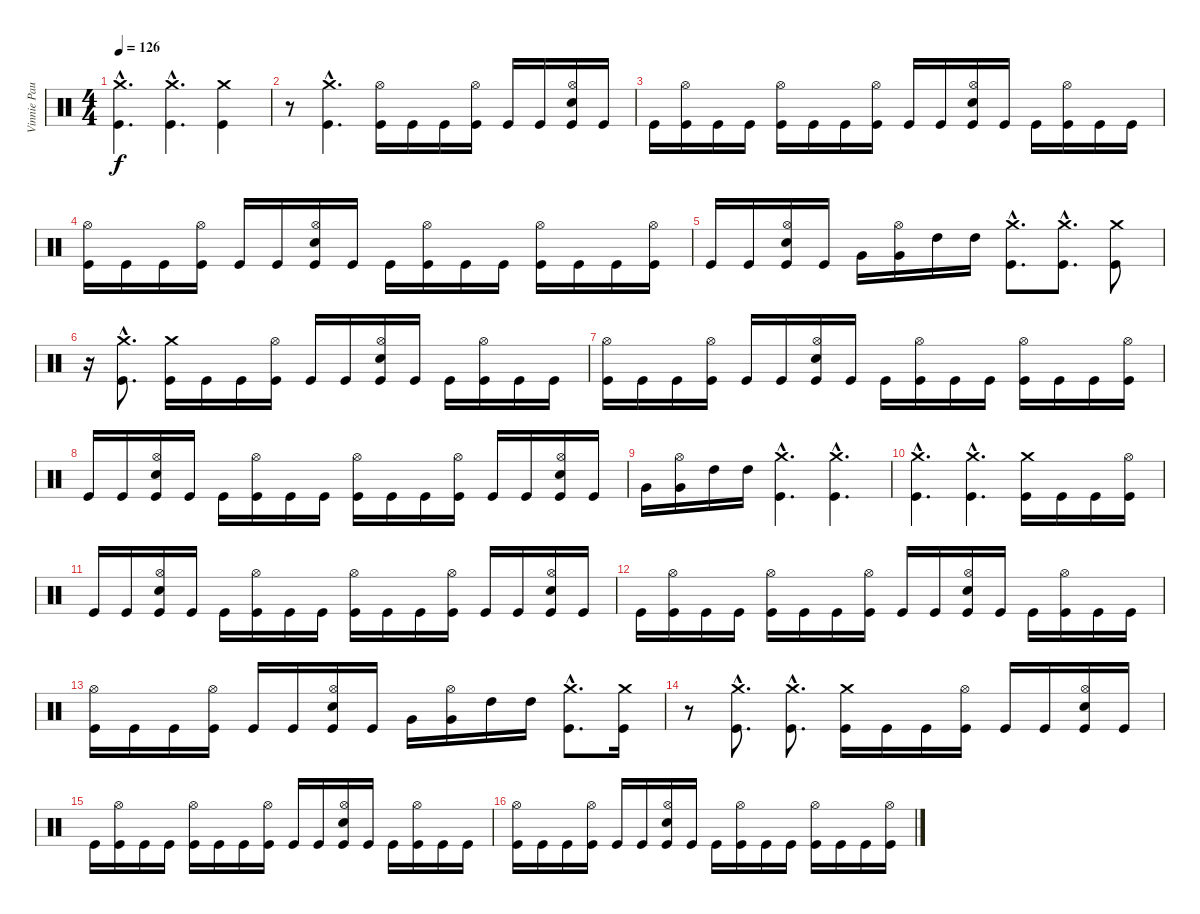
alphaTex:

\track ("Vinnie Paul" "Vinnie Pau") {instrument percussion}
\staff {score}
\articulation defaults
\ts (4 4)
\tempo 126
\clef neutral
\ks c
("Kick (hit)"{hac} "Crash medium (hit)"{hac}).4{d dy f} ("Kick (hit)"{hac} "Crash medium (hit)"{hac}).4{d} ("Kick (hit)" "Crash medium (hit)").4 |
r.8 ("Kick (hit)"{hac} "Crash medium (hit)"{hac}).4{d} ("Kick (hit)" "Hi-Hat (open)").16 "Kick (hit)".16 "Kick (hit)".16 ("Kick (hit)" "Hi-Hat (open)").16 "Kick (hit)".16 "Kick (hit)".16 ("Kick (hit)" "Snare (hit) 2" "Hi-Hat (open)").16 "Kick (hit)".16 |
"Kick (hit)".16 ("Kick (hit)" "Hi-Hat (open)").16 "Kick (hit)".16 "Kick (hit)".16 ("Kick (hit)" "Hi-Hat (open)").16 "Kick (hit)".16 "Kick (hit)".16 ("Kick (hit)" "Hi-Hat (open)").16 "Kick (hit)".16 "Kick (hit)".16 ("Kick (hit)" "Snare (hit) 2" "Hi-Hat (open)").16 "Kick (hit)".16 "Kick (hit)".16 ("Kick (hit)" "Hi-Hat (open)").16 "Kick (hit)".16 "Kick (hit)".16 |
("Kick (hit)" "Hi-Hat (open)").16 "Kick (hit)".16 "Kick (hit)".16 ("Kick (hit)" "Hi-Hat (open)").16 "Kick (hit)".16 "Kick (hit)".16 ("Kick (hit)" "Snare (hit) 2" "Hi-Hat (open)").16 "Kick (hit)".16 "Kick (hit)".16 ("Kick (hit)" "Hi-Hat (open)").16 "Kick (hit)".16 "Kick (hit)".16 ("Kick (hit)" "Hi-Hat (open)").16 "Kick (hit)".16 "Kick (hit)".16 ("Kick (hit)" "Hi-Hat (open)").16 |
"Kick (hit)".16 "Kick (hit)".16 ("Kick (hit)" "Snare (hit) 2" "Hi-Hat (open)").16 "Kick (hit)".16 "Very Low Tom (hit)".16 ("Very Low Tom (hit)" "Hi-Hat (open)").16 "High Tom (hit)".16 "High Tom (hit)".16 ("Kick (hit)"{hac} "Crash medium (hit)"{hac}).8{d} ("Kick (hit)"{hac} "Crash medium (hit)"{hac}).8{d} ("Kick (hit)" "Crash medium (hit)").8 |
r.16 ("Kick (hit)"{hac} "Crash medium (hit)"{hac}).8{d} ("Kick (hit)" "Crash medium (hit)").16 "Kick (hit)".16 "Kick (hit)".16 ("Kick (hit)" "Hi-Hat (open)").16 "Kick (hit)".16 "Kick (hit)".16 ("Kick (hit)" "Snare (hit) 2" "Hi-Hat (open)").16 "Kick (hit)".16 "Kick (hit)".16 ("Kick (hit)" "Hi-Hat (open)").16 "Kick (hit)".16 "Kick (hit)".16 |
("Kick (hit)" "Hi-Hat (open)").16 "Kick (hit)".16 "Kick (hit)".16 ("Kick (hit)" "Hi-Hat (open)").16 "Kick (hit)".16 "Kick (hit)".16 ("Kick (hit)" "Snare (hit) 2" "Hi-Hat (open)").16 "Kick (hit)".16 "Kick (hit)".16 ("Kick (hit)" "Hi-Hat (open)").16 "Kick (hit)".16 "Kick (hit)".16 ("Kick (hit)" "Hi-Hat (open)").16 "Kick (hit)".16 "Kick (hit)".16 ("Kick (hit)" "Hi-Hat (open)").16 |
"Kick (hit)".16 "Kick (hit)".16 ("Kick (hit)" "Snare (hit) 2" "Hi-Hat (open)").16 "Kick (hit)".16 "Kick (hit)".16 ("Kick (hit)" "Hi-Hat (open)").16 "Kick (hit)".16 "Kick (hit)".16 ("Kick (hit)" "Hi-Hat (open)").16 "Kick (hit)".16 "Kick (hit)".16 ("Kick (hit)" "Hi-Hat (open)").16 "Kick (hit)".16 "Kick (hit)".16 ("Kick (hit)" "Snare (hit) 2" "Hi-Hat (open)").16 "Kick (hit)".16 |
"Very Low Tom (hit)".16 ("Very Low Tom (hit)" "Hi-Hat (open)").16 "High Tom (hit)".16 "High Tom (hit)".16 ("Kick (hit)"{hac} "Crash medium (hit)"{hac}).4{d} ("Kick (hit)"{hac} "Crash medium (hit)"{hac}).4{d} |
("Kick (hit)"{hac} "Crash medium (hit)"{hac}).4{d} ("Kick (hit)"{hac} "Crash medium (hit)"{hac}).4{d} ("Kick (hit)" "Crash medium (hit)").16 "Kick (hit)".16 "Kick (hit)".16 ("Kick (hit)" "Hi-Hat (open)").16 |
"Kick (hit)".16 "Kick (hit)".16 ("Kick (hit)" "Snare (hit) 2" "Hi-Hat (open)").16 "Kick (hit)".16 "Kick (hit)".16 ("Kick (hit)" "Hi-Hat (open)").16 "Kick (hit)".16 "Kick (hit)".16 ("Kick (hit)" "Hi-Hat (open)").16 "Kick (hit)".16 "Kick (hit)".16 ("Kick (hit)" "Hi-Hat (open)").16 "Kick (hit)".16 "Kick (hit)".16 ("Kick (hit)" "Snare (hit) 2" "Hi-Hat (open)").16 "Kick (hit)".16 |
"Kick (hit)".16 ("Kick (hit)" "Hi-Hat (open)").16 "Kick (hit)".16 "Kick (hit)".16 ("Kick (hit)" "Hi-Hat (open)").16 "Kick (hit)".16 "Kick (hit)".16 ("Kick (hit)" "Hi-Hat (open)").16 "Kick (hit)".16 "Kick (hit)".16 ("Kick (hit)" "Snare (hit) 2" "Hi-Hat (open)").16 "Kick (hit)".16 "Kick (hit)".16 ("Kick (hit)" "Hi-Hat (open)").16 "Kick (hit)".16 "Kick (hit)".16 |
("Kick (hit)" "Hi-Hat (open)").16 "Kick (hit)".16 "Kick (hit)".16 ("Kick (hit)" "Hi-Hat (open)").16 "Kick (hit)".16 "Kick (hit)".16 ("Kick (hit)" "Snare (hit) 2" "Hi-Hat (open)").16 "Kick (hit)".16 "Very Low Tom (hit)".16 ("Very Low Tom (hit)" "Hi-Hat (open)").16 "High Tom (hit)".16 "High Tom (hit)".16 ("Kick (hit)"{hac} "Crash medium (hit)"{hac}).8{d} ("Kick (hit)" "Crash medium (hit)").16 |
r.8 ("Kick (hit)"{hac} "Crash medium (hit)"{hac}).8{d} ("Kick (hit)"{hac} "Crash medium (hit)"{hac}).8{d} ("Kick (hit)" "Crash medium (hit)").16 "Kick (hit)".16 "Kick (hit)".16 ("Kick (hit)" "Hi-Hat (open)").16 "Kick (hit)".16 "Kick (hit)".16 ("Kick (hit)" "Snare (hit) 2" "Hi-Hat (open)").16 "Kick (hit)".16 |
"Kick (hit)".16 ("Kick (hit)" "Hi-Hat (open)").16 "Kick (hit)".16 "Kick (hit)".16 ("Kick (hit)" "Hi-Hat (open)").16 "Kick (hit)".16 "Kick (hit)".16 ("Kick (hit)" "Hi-Hat (open)").16 "Kick (hit)".16 "Kick (hit)".16 ("Kick (hit)" "Snare (hit) 2" "Hi-Hat (open)").16 "Kick (hit)".16 "Kick (hit)".16 ("Kick (hit)" "Hi-Hat (open)").16 "Kick (hit)".16 "Kick (hit)".16 |
("Kick (hit)" "Hi-Hat (open)").16 "Kick (hit)".16 "Kick (hit)".16 ("Kick (hit)" "Hi-Hat (open)").16 "Kick (hit)".16 "Kick (hit)".16 ("Kick (hit)" "Snare (hit) 2" "Hi-Hat (open)").16 "Kick (hit)".16 "Kick (hit)".16 ("Kick (hit)" "Hi-Hat (open)").16 "Kick (hit)".16 "Kick (hit)".16 ("Kick (hit)" "Hi-Hat (open)").16 "Kick (hit)".16 "Kick (hit)".16 ("Kick (hit)" "Hi-Hat (open)").16
